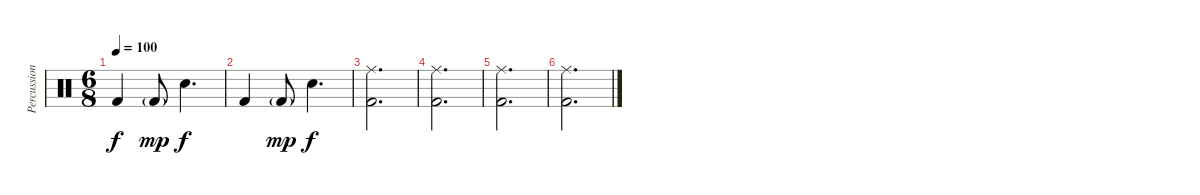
\track ("Percussion" "Percussion") {instrument percussion}
\staff {score}
\articulation defaults
\ts (6 8)
\tempo 100
\clef neutral
\ks c "Kick (hit) 2".4{dy f} "Kick (hit) 2"{g}.8{dy mp} "Snare (hit) 2".4{d dy f}
|
"Kick (hit) 2".4 "Kick (hit) 2"{g}.8{dy mp} "Snare (hit) 2".4{d dy f} |
("Ride (middle)" "Kick (hit) 2").2{d} |
("Ride (middle)" "Kick (hit) 2").2{d} |
("Ride (middle)" "Kick (hit) 2").2{d} |
("Ride (middle)" "Kick (hit) 2").2{d}
